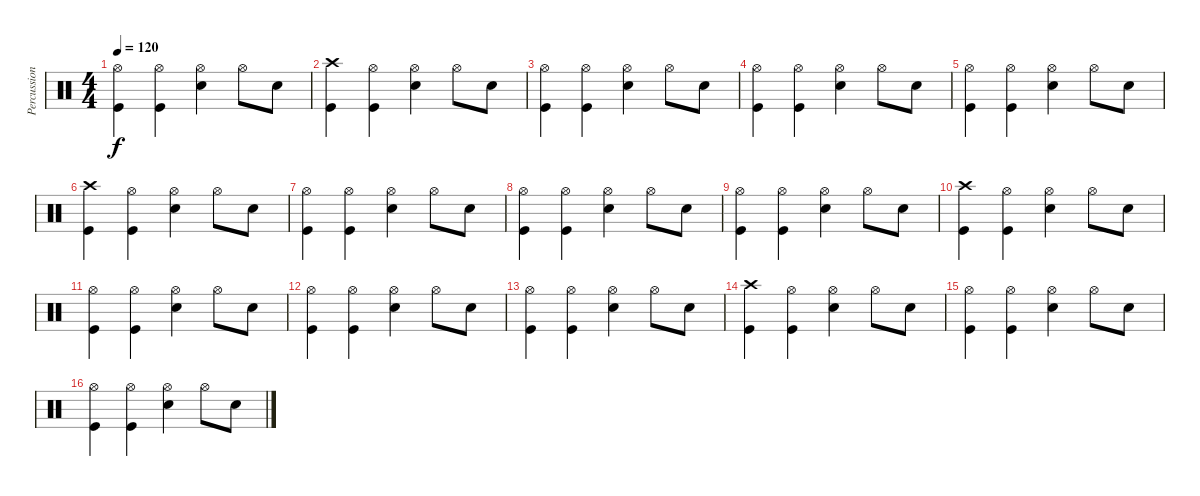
\track ("Percussions" "Percussion") {instrument percussion}
\staff {score}
\articulation defaults
\ts (4 4)
\tempo 120
\clef neutral
\ks c
("Hi-Hat (open)" "Kick (hit)").4{dy f} ("Hi-Hat (open)" "Kick (hit)").4 ("Hi-Hat (open)" "Snare (hit) 2").4 "Hi-Hat (open)".8 "Snare (hit) 2".8 |
("Crash high (hit)" "Kick (hit)").4 ("Hi-Hat (open)" "Kick (hit)").4 ("Hi-Hat (open)" "Snare (hit) 2").4 "Hi-Hat (open)".8 "Snare (hit) 2".8 |
("Hi-Hat (open)" "Kick (hit)").4 ("Hi-Hat (open)" "Kick (hit)").4 ("Hi-Hat (open)" "Snare (hit) 2").4 "Hi-Hat (open)".8 "Snare (hit) 2".8 |
("Hi-Hat (open)" "Kick (hit)").4 ("Hi-Hat (open)" "Kick (hit)").4 ("Hi-Hat (open)" "Snare (hit) 2").4 "Hi-Hat (open)".8 "Snare (hit) 2".8 |
("Hi-Hat (open)" "Kick (hit)").4 ("Hi-Hat (open)" "Kick (hit)").4 ("Hi-Hat (open)" "Snare (hit) 2").4 "Hi-Hat (open)".8 "Snare (hit) 2".8 |
("Crash high (hit)" "Kick (hit)").4 ("Hi-Hat (open)" "Kick (hit)").4 ("Hi-Hat (open)" "Snare (hit) 2").4 "Hi-Hat (open)".8 "Snare (hit) 2".8 |
("Hi-Hat (open)" "Kick (hit)").4 ("Hi-Hat (open)" "Kick (hit)").4 ("Hi-Hat (open)" "Snare (hit) 2").4 "Hi-Hat (open)".8 "Snare (hit) 2".8 |
("Hi-Hat (open)" "Kick (hit)").4 ("Hi-Hat (open)" "Kick (hit)").4 ("Hi-Hat (open)" "Snare (hit) 2").4 "Hi-Hat (open)".8 "Snare (hit) 2".8 |
("Hi-Hat (open)" "Kick (hit)").4 ("Hi-Hat (open)" "Kick (hit)").4 ("Hi-Hat (open)" "Snare (hit) 2").4 "Hi-Hat (open)".8 "Snare (hit) 2".8 |
("Crash high (hit)" "Kick (hit)").4 ("Hi-Hat (open)" "Kick (hit)").4 ("Hi-Hat (open)" "Snare (hit) 2").4 "Hi-Hat (open)".8 "Snare (hit) 2".8 |
("Hi-Hat (open)" "Kick (hit)").4 ("Hi-Hat (open)" "Kick (hit)").4 ("Hi-Hat (open)" "Snare (hit) 2").4 "Hi-Hat (open)".8 "Snare (hit) 2".8 |
("Hi-Hat (open)" "Kick (hit)").4 ("Hi-Hat (open)" "Kick (hit)").4 ("Hi-Hat (open)" "Snare (hit) 2").4 "Hi-Hat (open)".8 "Snare (hit) 2".8 |
("Hi-Hat (open)" "Kick (hit)").4 ("Hi-Hat (open)" "Kick (hit)").4 ("Hi-Hat (open)" "Snare (hit) 2").4 "Hi-Hat (open)".8 "Snare (hit) 2".8 |
("Crash high (hit)" "Kick (hit)").4 ("Hi-Hat (open)" "Kick (hit)").4 ("Hi-Hat (open)" "Snare (hit) 2").4 "Hi-Hat (open)".8 "Snare (hit) 2".8 |
("Hi-Hat (open)" "Kick (hit)").4 ("Hi-Hat (open)" "Kick (hit)").4 ("Hi-Hat (open)" "Snare (hit) 2").4 "Hi-Hat (open)".8 "Snare (hit) 2".8 |
("Hi-Hat (open)" "Kick (hit)").4 ("Hi-Hat (open)" "Kick (hit)").4 ("Hi-Hat (open)" "Snare (hit) 2").4 "Hi-Hat (open)".8 "Snare (hit) 2".8
